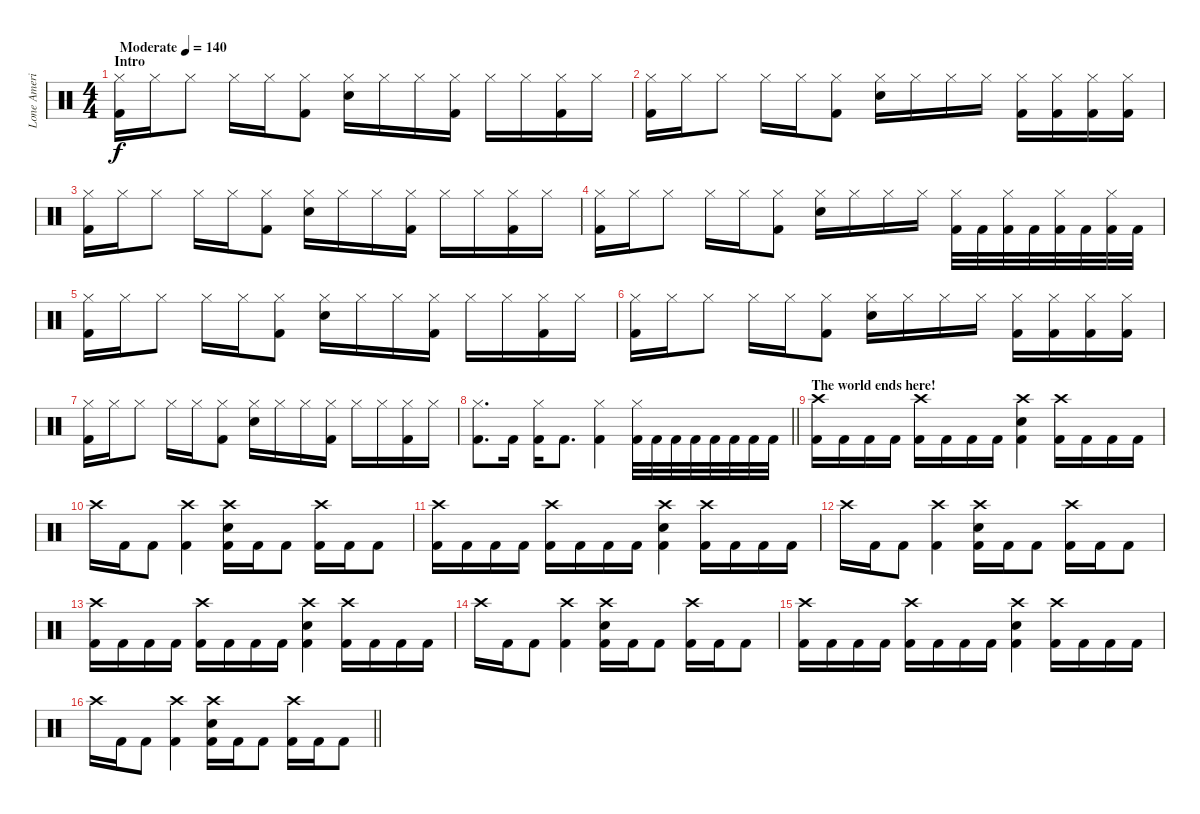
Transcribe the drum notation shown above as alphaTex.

\track ("Lone America" "Lone Ameri") {instrument percussion}
\staff {score}
\articulation defaults
\ts (4 4)
\section ("" "Intro")
\tempo (140 "Moderate")
\clef neutral
\ks c
("Hi-Hat (closed)" "Kick (hit) 2").16{dy f} "Hi-Hat (closed)".16 "Hi-Hat (closed)".8 "Hi-Hat (closed)".16 "Hi-Hat (closed)".16 ("Hi-Hat (closed)" "Kick (hit) 2").8 ("Hi-Hat (closed)" "Electric Snare (hit)").16 "Hi-Hat (closed)".16 "Hi-Hat (closed)".16 ("Hi-Hat (closed)" "Kick (hit) 2").16 "Hi-Hat (closed)".16 "Hi-Hat (closed)".16 ("Hi-Hat (closed)" "Kick (hit) 2").16 "Hi-Hat (closed)".16 |
("Hi-Hat (closed)" "Kick (hit) 2").16 "Hi-Hat (closed)".16 "Hi-Hat (closed)".8 "Hi-Hat (closed)".16 "Hi-Hat (closed)".16 ("Hi-Hat (closed)" "Kick (hit) 2").8 ("Hi-Hat (closed)" "Electric Snare (hit)").16 "Hi-Hat (closed)".16 "Hi-Hat (closed)".16 "Hi-Hat (closed)".16 ("Hi-Hat (closed)" "Kick (hit) 2").16 ("Hi-Hat (closed)" "Kick (hit) 2").16 ("Hi-Hat (closed)" "Kick (hit) 2").16 ("Hi-Hat (closed)" "Kick (hit) 2").16 |
("Hi-Hat (closed)" "Kick (hit) 2").16 "Hi-Hat (closed)".16 "Hi-Hat (closed)".8 "Hi-Hat (closed)".16 "Hi-Hat (closed)".16 ("Hi-Hat (closed)" "Kick (hit) 2").8 ("Hi-Hat (closed)" "Electric Snare (hit)").16 "Hi-Hat (closed)".16 "Hi-Hat (closed)".16 ("Hi-Hat (closed)" "Kick (hit) 2").16 "Hi-Hat (closed)".16 "Hi-Hat (closed)".16 ("Hi-Hat (closed)" "Kick (hit) 2").16 "Hi-Hat (closed)".16 |
("Hi-Hat (closed)" "Kick (hit) 2").16 "Hi-Hat (closed)".16 "Hi-Hat (closed)".8 "Hi-Hat (closed)".16 "Hi-Hat (closed)".16 ("Hi-Hat (closed)" "Kick (hit) 2").8 ("Hi-Hat (closed)" "Electric Snare (hit)").16 "Hi-Hat (closed)".16 "Hi-Hat (closed)".16 "Hi-Hat (closed)".16 ("Hi-Hat (closed)" "Kick (hit) 2").32 "Kick (hit) 2".32 ("Hi-Hat (closed)" "Kick (hit) 2").32 "Kick (hit) 2".32 ("Hi-Hat (closed)" "Kick (hit) 2").32 "Kick (hit) 2".32 ("Hi-Hat (closed)" "Kick (hit) 2").32 "Kick (hit) 2".32 |
("Hi-Hat (closed)" "Kick (hit) 2").16 "Hi-Hat (closed)".16 "Hi-Hat (closed)".8 "Hi-Hat (closed)".16 "Hi-Hat (closed)".16 ("Hi-Hat (closed)" "Kick (hit) 2").8 ("Hi-Hat (closed)" "Electric Snare (hit)").16 "Hi-Hat (closed)".16 "Hi-Hat (closed)".16 ("Hi-Hat (closed)" "Kick (hit) 2").16 "Hi-Hat (closed)".16 "Hi-Hat (closed)".16 ("Hi-Hat (closed)" "Kick (hit) 2").16 "Hi-Hat (closed)".16 |
("Hi-Hat (closed)" "Kick (hit) 2").16 "Hi-Hat (closed)".16 "Hi-Hat (closed)".8 "Hi-Hat (closed)".16 "Hi-Hat (closed)".16 ("Hi-Hat (closed)" "Kick (hit) 2").8 ("Hi-Hat (closed)" "Electric Snare (hit)").16 "Hi-Hat (closed)".16 "Hi-Hat (closed)".16 "Hi-Hat (closed)".16 ("Hi-Hat (closed)" "Kick (hit) 2").16 ("Hi-Hat (closed)" "Kick (hit) 2").16 ("Hi-Hat (closed)" "Kick (hit) 2").16 ("Hi-Hat (closed)" "Kick (hit) 2").16 |
("Hi-Hat (closed)" "Kick (hit) 2").16 "Hi-Hat (closed)".16 "Hi-Hat (closed)".8 "Hi-Hat (closed)".16 "Hi-Hat (closed)".16 ("Hi-Hat (closed)" "Kick (hit) 2").8 ("Hi-Hat (closed)" "Electric Snare (hit)").16 "Hi-Hat (closed)".16 "Hi-Hat (closed)".16 ("Hi-Hat (closed)" "Kick (hit) 2").16 "Hi-Hat (closed)".16 "Hi-Hat (closed)".16 ("Hi-Hat (closed)" "Kick (hit) 2").16 "Hi-Hat (closed)".16 |
\barLineRight lightlight
("Hi-Hat (closed)" "Kick (hit) 2").8{d} "Kick (hit) 2".16 ("Hi-Hat (closed)" "Kick (hit) 2").16 "Kick (hit) 2".8{d} ("Hi-Hat (closed)" "Kick (hit) 2").4 ("Hi-Hat (closed)" "Kick (hit) 2").32 "Kick (hit) 2".32 "Kick (hit) 2".32 "Kick (hit) 2".32 "Kick (hit) 2".32 "Kick (hit) 2".32 "Kick (hit) 2".32 "Kick (hit) 2".32 |
\section ("" "The world ends here!")
("Crash high (hit)" "Kick (hit) 2").16 "Kick (hit) 2".16 "Kick (hit) 2".16 "Kick (hit) 2".16 ("Crash high (hit)" "Kick (hit) 2").16 "Kick (hit) 2".16 "Kick (hit) 2".16 "Kick (hit) 2".16 ("Crash high (hit)" "Electric Snare (hit)" "Kick (hit) 2").4 ("Crash high (hit)" "Kick (hit) 2").16 "Kick (hit) 2".16 "Kick (hit) 2".16 "Kick (hit) 2".16 |
"Crash high (hit)".16 "Kick (hit) 2".16 "Kick (hit) 2".8 ("Crash high (hit)" "Kick (hit) 2").4 ("Crash high (hit)" "Electric Snare (hit)" "Kick (hit) 2").16 "Kick (hit) 2".16 "Kick (hit) 2".8 ("Crash high (hit)" "Kick (hit) 2").16 "Kick (hit) 2".16 "Kick (hit) 2".8 |
("Crash high (hit)" "Kick (hit) 2").16 "Kick (hit) 2".16 "Kick (hit) 2".16 "Kick (hit) 2".16 ("Crash high (hit)" "Kick (hit) 2").16 "Kick (hit) 2".16 "Kick (hit) 2".16 "Kick (hit) 2".16 ("Crash high (hit)" "Electric Snare (hit)" "Kick (hit) 2").4 ("Crash high (hit)" "Kick (hit) 2").16 "Kick (hit) 2".16 "Kick (hit) 2".16 "Kick (hit) 2".16 |
"Crash high (hit)".16 "Kick (hit) 2".16 "Kick (hit) 2".8 ("Crash high (hit)" "Kick (hit) 2").4 ("Crash high (hit)" "Electric Snare (hit)" "Kick (hit) 2").16 "Kick (hit) 2".16 "Kick (hit) 2".8 ("Crash high (hit)" "Kick (hit) 2").16 "Kick (hit) 2".16 "Kick (hit) 2".8 |
("Crash high (hit)" "Kick (hit) 2").16 "Kick (hit) 2".16 "Kick (hit) 2".16 "Kick (hit) 2".16 ("Crash high (hit)" "Kick (hit) 2").16 "Kick (hit) 2".16 "Kick (hit) 2".16 "Kick (hit) 2".16 ("Crash high (hit)" "Electric Snare (hit)" "Kick (hit) 2").4 ("Crash high (hit)" "Kick (hit) 2").16 "Kick (hit) 2".16 "Kick (hit) 2".16 "Kick (hit) 2".16 |
"Crash high (hit)".16 "Kick (hit) 2".16 "Kick (hit) 2".8 ("Crash high (hit)" "Kick (hit) 2").4 ("Crash high (hit)" "Electric Snare (hit)" "Kick (hit) 2").16 "Kick (hit) 2".16 "Kick (hit) 2".8 ("Crash high (hit)" "Kick (hit) 2").16 "Kick (hit) 2".16 "Kick (hit) 2".8 |
("Crash high (hit)" "Kick (hit) 2").16 "Kick (hit) 2".16 "Kick (hit) 2".16 "Kick (hit) 2".16 ("Crash high (hit)" "Kick (hit) 2").16 "Kick (hit) 2".16 "Kick (hit) 2".16 "Kick (hit) 2".16 ("Crash high (hit)" "Electric Snare (hit)" "Kick (hit) 2").4 ("Crash high (hit)" "Kick (hit) 2").16 "Kick (hit) 2".16 "Kick (hit) 2".16 "Kick (hit) 2".16 |
\barLineRight lightlight "Crash high (hit)".16 "Kick (hit) 2".16 "Kick (hit) 2".8
("Crash high (hit)" "Kick (hit) 2").4 ("Crash high (hit)" "Electric Snare (hit)" "Kick (hit) 2").16 "Kick (hit) 2".16 "Kick (hit) 2".8 ("Crash high (hit)" "Kick (hit) 2").16 "Kick (hit) 2".16 "Kick (hit) 2".8
